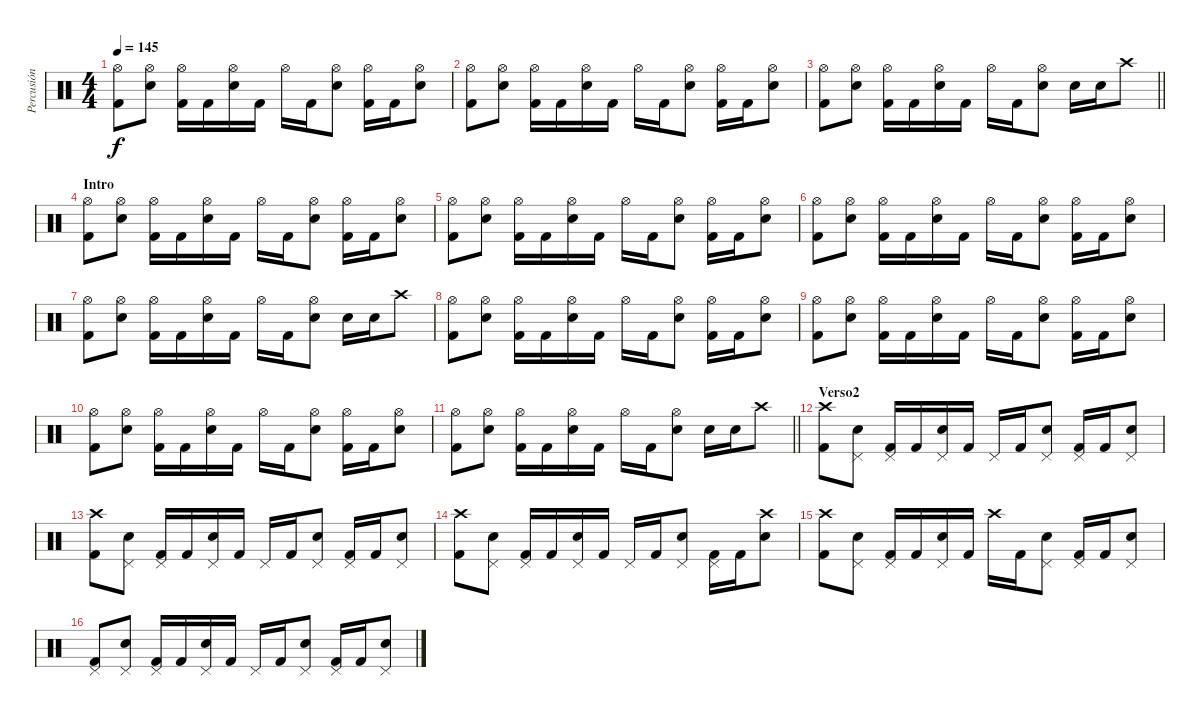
\track ("Percusión" "Percusión") {instrument percussion}
\staff {score}
\articulation defaults
\ts (4 4)
\tempo 145
\clef neutral
\ks c
("Hi-Hat (open)" "Kick (hit) 2").8{dy f} ("Hi-Hat (open)" "Electric Snare (hit)").8 ("Hi-Hat (open)" "Kick (hit) 2").16 "Kick (hit) 2".16 ("Hi-Hat (open)" "Electric Snare (hit)").16 "Kick (hit) 2".16 "Hi-Hat (open)".16 "Kick (hit) 2".16 ("Hi-Hat (open)" "Electric Snare (hit)").8 ("Hi-Hat (open)" "Kick (hit) 2").16 "Kick (hit) 2".16 ("Hi-Hat (open)" "Electric Snare (hit)").8 |
("Hi-Hat (open)" "Kick (hit) 2").8 ("Hi-Hat (open)" "Electric Snare (hit)").8 ("Hi-Hat (open)" "Kick (hit) 2").16 "Kick (hit) 2".16 ("Hi-Hat (open)" "Electric Snare (hit)").16 "Kick (hit) 2".16 "Hi-Hat (open)".16 "Kick (hit) 2".16 ("Hi-Hat (open)" "Electric Snare (hit)").8 ("Hi-Hat (open)" "Kick (hit) 2").16 "Kick (hit) 2".16 ("Hi-Hat (open)" "Electric Snare (hit)").8 |
\barLineRight lightlight
("Hi-Hat (open)" "Kick (hit) 2").8 ("Hi-Hat (open)" "Electric Snare (hit)").8 ("Hi-Hat (open)" "Kick (hit) 2").16 "Kick (hit) 2".16 ("Hi-Hat (open)" "Electric Snare (hit)").16 "Kick (hit) 2".16 "Hi-Hat (open)".16 "Kick (hit) 2".16 ("Hi-Hat (open)" "Electric Snare (hit)").8 "Electric Snare (hit)".16 "Electric Snare (hit)".16 "Crash high (hit)".8 |
\section ("" "Intro")
("Hi-Hat (open)" "Kick (hit) 2").8 ("Hi-Hat (open)" "Electric Snare (hit)").8 ("Hi-Hat (open)" "Kick (hit) 2").16 "Kick (hit) 2".16 ("Hi-Hat (open)" "Electric Snare (hit)").16 "Kick (hit) 2".16 "Hi-Hat (open)".16 "Kick (hit) 2".16 ("Hi-Hat (open)" "Electric Snare (hit)").8 ("Hi-Hat (open)" "Kick (hit) 2").16 "Kick (hit) 2".16 ("Hi-Hat (open)" "Electric Snare (hit)").8 |
("Hi-Hat (open)" "Kick (hit) 2").8 ("Hi-Hat (open)" "Electric Snare (hit)").8 ("Hi-Hat (open)" "Kick (hit) 2").16 "Kick (hit) 2".16 ("Hi-Hat (open)" "Electric Snare (hit)").16 "Kick (hit) 2".16 "Hi-Hat (open)".16 "Kick (hit) 2".16 ("Hi-Hat (open)" "Electric Snare (hit)").8 ("Hi-Hat (open)" "Kick (hit) 2").16 "Kick (hit) 2".16 ("Hi-Hat (open)" "Electric Snare (hit)").8 |
("Hi-Hat (open)" "Kick (hit) 2").8 ("Hi-Hat (open)" "Electric Snare (hit)").8 ("Hi-Hat (open)" "Kick (hit) 2").16 "Kick (hit) 2".16 ("Hi-Hat (open)" "Electric Snare (hit)").16 "Kick (hit) 2".16 "Hi-Hat (open)".16 "Kick (hit) 2".16 ("Hi-Hat (open)" "Electric Snare (hit)").8 ("Hi-Hat (open)" "Kick (hit) 2").16 "Kick (hit) 2".16 ("Hi-Hat (open)" "Electric Snare (hit)").8 |
("Hi-Hat (open)" "Kick (hit) 2").8 ("Hi-Hat (open)" "Electric Snare (hit)").8 ("Hi-Hat (open)" "Kick (hit) 2").16 "Kick (hit) 2".16 ("Hi-Hat (open)" "Electric Snare (hit)").16 "Kick (hit) 2".16 "Hi-Hat (open)".16 "Kick (hit) 2".16 ("Hi-Hat (open)" "Electric Snare (hit)").8 "Electric Snare (hit)".16 "Electric Snare (hit)".16 "Crash high (hit)".8 |
("Hi-Hat (open)" "Kick (hit) 2").8 ("Hi-Hat (open)" "Electric Snare (hit)").8 ("Hi-Hat (open)" "Kick (hit) 2").16 "Kick (hit) 2".16 ("Hi-Hat (open)" "Electric Snare (hit)").16 "Kick (hit) 2".16 "Hi-Hat (open)".16 "Kick (hit) 2".16 ("Hi-Hat (open)" "Electric Snare (hit)").8 ("Hi-Hat (open)" "Kick (hit) 2").16 "Kick (hit) 2".16 ("Hi-Hat (open)" "Electric Snare (hit)").8 |
("Hi-Hat (open)" "Kick (hit) 2").8 ("Hi-Hat (open)" "Electric Snare (hit)").8 ("Hi-Hat (open)" "Kick (hit) 2").16 "Kick (hit) 2".16 ("Hi-Hat (open)" "Electric Snare (hit)").16 "Kick (hit) 2".16 "Hi-Hat (open)".16 "Kick (hit) 2".16 ("Hi-Hat (open)" "Electric Snare (hit)").8 ("Hi-Hat (open)" "Kick (hit) 2").16 "Kick (hit) 2".16 ("Hi-Hat (open)" "Electric Snare (hit)").8 |
("Hi-Hat (open)" "Kick (hit) 2").8 ("Hi-Hat (open)" "Electric Snare (hit)").8 ("Hi-Hat (open)" "Kick (hit) 2").16 "Kick (hit) 2".16 ("Hi-Hat (open)" "Electric Snare (hit)").16 "Kick (hit) 2".16 "Hi-Hat (open)".16 "Kick (hit) 2".16 ("Hi-Hat (open)" "Electric Snare (hit)").8 ("Hi-Hat (open)" "Kick (hit) 2").16 "Kick (hit) 2".16 ("Hi-Hat (open)" "Electric Snare (hit)").8 |
\barLineRight lightlight
("Hi-Hat (open)" "Kick (hit) 2").8 ("Hi-Hat (open)" "Electric Snare (hit)").8 ("Hi-Hat (open)" "Kick (hit) 2").16 "Kick (hit) 2".16 ("Hi-Hat (open)" "Electric Snare (hit)").16 "Kick (hit) 2".16 "Hi-Hat (open)".16 "Kick (hit) 2".16 ("Hi-Hat (open)" "Electric Snare (hit)").8 "Electric Snare (hit)".16 "Electric Snare (hit)".16 "Crash high (hit)".8 |
\section ("" "Verso2")
("Crash high (hit)" "Kick (hit) 2").8 ("Pedal Hi-Hat (hit)" "Electric Snare (hit)").8 ("Pedal Hi-Hat (hit)" "Kick (hit) 2").16 "Kick (hit) 2".16 ("Pedal Hi-Hat (hit)" "Electric Snare (hit)").16 "Kick (hit) 2".16 "Pedal Hi-Hat (hit)".16 "Kick (hit) 2".16 ("Pedal Hi-Hat (hit)" "Electric Snare (hit)").8 ("Pedal Hi-Hat (hit)" "Kick (hit) 2").16 "Kick (hit) 2".16 ("Pedal Hi-Hat (hit)" "Electric Snare (hit)").8 |
("Crash high (hit)" "Kick (hit) 2").8 ("Pedal Hi-Hat (hit)" "Electric Snare (hit)").8 ("Pedal Hi-Hat (hit)" "Kick (hit) 2").16 "Kick (hit) 2".16 ("Pedal Hi-Hat (hit)" "Electric Snare (hit)").16 "Kick (hit) 2".16 "Pedal Hi-Hat (hit)".16 "Kick (hit) 2".16 ("Pedal Hi-Hat (hit)" "Electric Snare (hit)").8 ("Pedal Hi-Hat (hit)" "Kick (hit) 2").16 "Kick (hit) 2".16 ("Pedal Hi-Hat (hit)" "Electric Snare (hit)").8 |
("Crash high (hit)" "Kick (hit) 2").8 ("Pedal Hi-Hat (hit)" "Electric Snare (hit)").8 ("Pedal Hi-Hat (hit)" "Kick (hit) 2").16 "Kick (hit) 2".16 ("Pedal Hi-Hat (hit)" "Electric Snare (hit)").16 "Kick (hit) 2".16 "Pedal Hi-Hat (hit)".16 "Kick (hit) 2".16 ("Pedal Hi-Hat (hit)" "Electric Snare (hit)").8 ("Pedal Hi-Hat (hit)" "Kick (hit) 2").16 "Kick (hit) 2".16 ("Crash high (hit)" "Electric Snare (hit)").8 |
("Crash high (hit)" "Kick (hit) 2").8 ("Pedal Hi-Hat (hit)" "Electric Snare (hit)").8 ("Pedal Hi-Hat (hit)" "Kick (hit) 2").16 "Kick (hit) 2".16 ("Pedal Hi-Hat (hit)" "Electric Snare (hit)").16 "Kick (hit) 2".16 "Crash high (hit)".16 "Kick (hit) 2".16 ("Pedal Hi-Hat (hit)" "Electric Snare (hit)").8 ("Pedal Hi-Hat (hit)" "Kick (hit) 2").16 "Kick (hit) 2".16 ("Pedal Hi-Hat (hit)" "Electric Snare (hit)").8 |
("Pedal Hi-Hat (hit)" "Kick (hit) 2").8 ("Pedal Hi-Hat (hit)" "Electric Snare (hit)").8 ("Pedal Hi-Hat (hit)" "Kick (hit) 2").16 "Kick (hit) 2".16 ("Pedal Hi-Hat (hit)" "Electric Snare (hit)").16 "Kick (hit) 2".16 "Pedal Hi-Hat (hit)".16 "Kick (hit) 2".16 ("Pedal Hi-Hat (hit)" "Electric Snare (hit)").8 ("Pedal Hi-Hat (hit)" "Kick (hit) 2").16 "Kick (hit) 2".16 ("Pedal Hi-Hat (hit)" "Electric Snare (hit)").8
